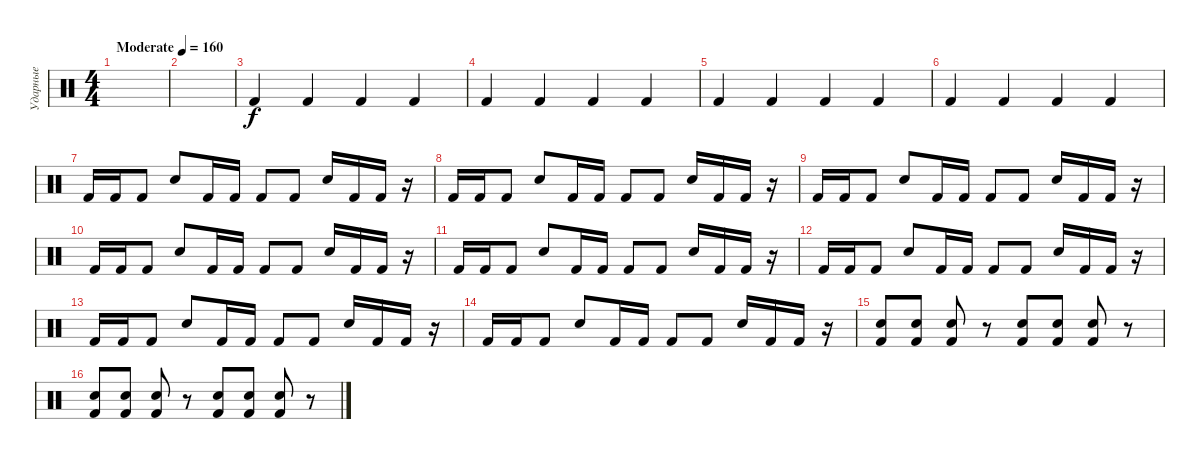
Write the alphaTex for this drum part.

\track ("Ударные" "Ударные") {instrument percussion}
\staff {score}
\articulation defaults
\ts (4 4)
\tempo (160 "Moderate")
\clef neutral
\ks c
|
|
"Kick (hit) 2".4 "Kick (hit) 2".4 "Kick (hit) 2".4 "Kick (hit) 2".4 |
"Kick (hit) 2".4 "Kick (hit) 2".4 "Kick (hit) 2".4 "Kick (hit) 2".4 |
"Kick (hit) 2".4 "Kick (hit) 2".4 "Kick (hit) 2".4 "Kick (hit) 2".4 |
"Kick (hit) 2".4 "Kick (hit) 2".4 "Kick (hit) 2".4 "Kick (hit) 2".4 |
"Kick (hit) 2".16 "Kick (hit) 2".16 "Kick (hit) 2".8 "Electric Snare (hit)".8 "Kick (hit) 2".16 "Kick (hit) 2".16 "Kick (hit) 2".8 "Kick (hit) 2".8 "Electric Snare (hit)".16 "Kick (hit) 2".16 "Kick (hit) 2".16 r.16 |
"Kick (hit) 2".16 "Kick (hit) 2".16 "Kick (hit) 2".8 "Electric Snare (hit)".8 "Kick (hit) 2".16 "Kick (hit) 2".16 "Kick (hit) 2".8 "Kick (hit) 2".8 "Electric Snare (hit)".16 "Kick (hit) 2".16 "Kick (hit) 2".16 r.16 |
"Kick (hit) 2".16 "Kick (hit) 2".16 "Kick (hit) 2".8 "Electric Snare (hit)".8 "Kick (hit) 2".16 "Kick (hit) 2".16 "Kick (hit) 2".8 "Kick (hit) 2".8 "Electric Snare (hit)".16 "Kick (hit) 2".16 "Kick (hit) 2".16 r.16 |
"Kick (hit) 2".16 "Kick (hit) 2".16 "Kick (hit) 2".8 "Electric Snare (hit)".8 "Kick (hit) 2".16 "Kick (hit) 2".16 "Kick (hit) 2".8 "Kick (hit) 2".8 "Electric Snare (hit)".16 "Kick (hit) 2".16 "Kick (hit) 2".16 r.16 |
"Kick (hit) 2".16 "Kick (hit) 2".16 "Kick (hit) 2".8 "Electric Snare (hit)".8 "Kick (hit) 2".16 "Kick (hit) 2".16 "Kick (hit) 2".8 "Kick (hit) 2".8 "Electric Snare (hit)".16 "Kick (hit) 2".16 "Kick (hit) 2".16 r.16 |
"Kick (hit) 2".16 "Kick (hit) 2".16 "Kick (hit) 2".8 "Electric Snare (hit)".8 "Kick (hit) 2".16 "Kick (hit) 2".16 "Kick (hit) 2".8 "Kick (hit) 2".8 "Electric Snare (hit)".16 "Kick (hit) 2".16 "Kick (hit) 2".16 r.16 |
"Kick (hit) 2".16 "Kick (hit) 2".16 "Kick (hit) 2".8 "Electric Snare (hit)".8 "Kick (hit) 2".16 "Kick (hit) 2".16 "Kick (hit) 2".8 "Kick (hit) 2".8 "Electric Snare (hit)".16 "Kick (hit) 2".16 "Kick (hit) 2".16 r.16 |
"Kick (hit) 2".16 "Kick (hit) 2".16 "Kick (hit) 2".8 "Electric Snare (hit)".8 "Kick (hit) 2".16 "Kick (hit) 2".16 "Kick (hit) 2".8 "Kick (hit) 2".8 "Electric Snare (hit)".16 "Kick (hit) 2".16 "Kick (hit) 2".16 r.16 |
("Electric Snare (hit)" "Kick (hit) 2").8 ("Electric Snare (hit)" "Kick (hit) 2").8 ("Electric Snare (hit)" "Kick (hit) 2").8 r.8 ("Electric Snare (hit)" "Kick (hit) 2").8 ("Electric Snare (hit)" "Kick (hit) 2").8 ("Electric Snare (hit)" "Kick (hit) 2").8 r.8 |
("Electric Snare (hit)" "Kick (hit) 2").8 ("Electric Snare (hit)" "Kick (hit) 2").8 ("Electric Snare (hit)" "Kick (hit) 2").8 r.8 ("Electric Snare (hit)" "Kick (hit) 2").8 ("Electric Snare (hit)" "Kick (hit) 2").8 ("Electric Snare (hit)" "Kick (hit) 2").8 r.8
